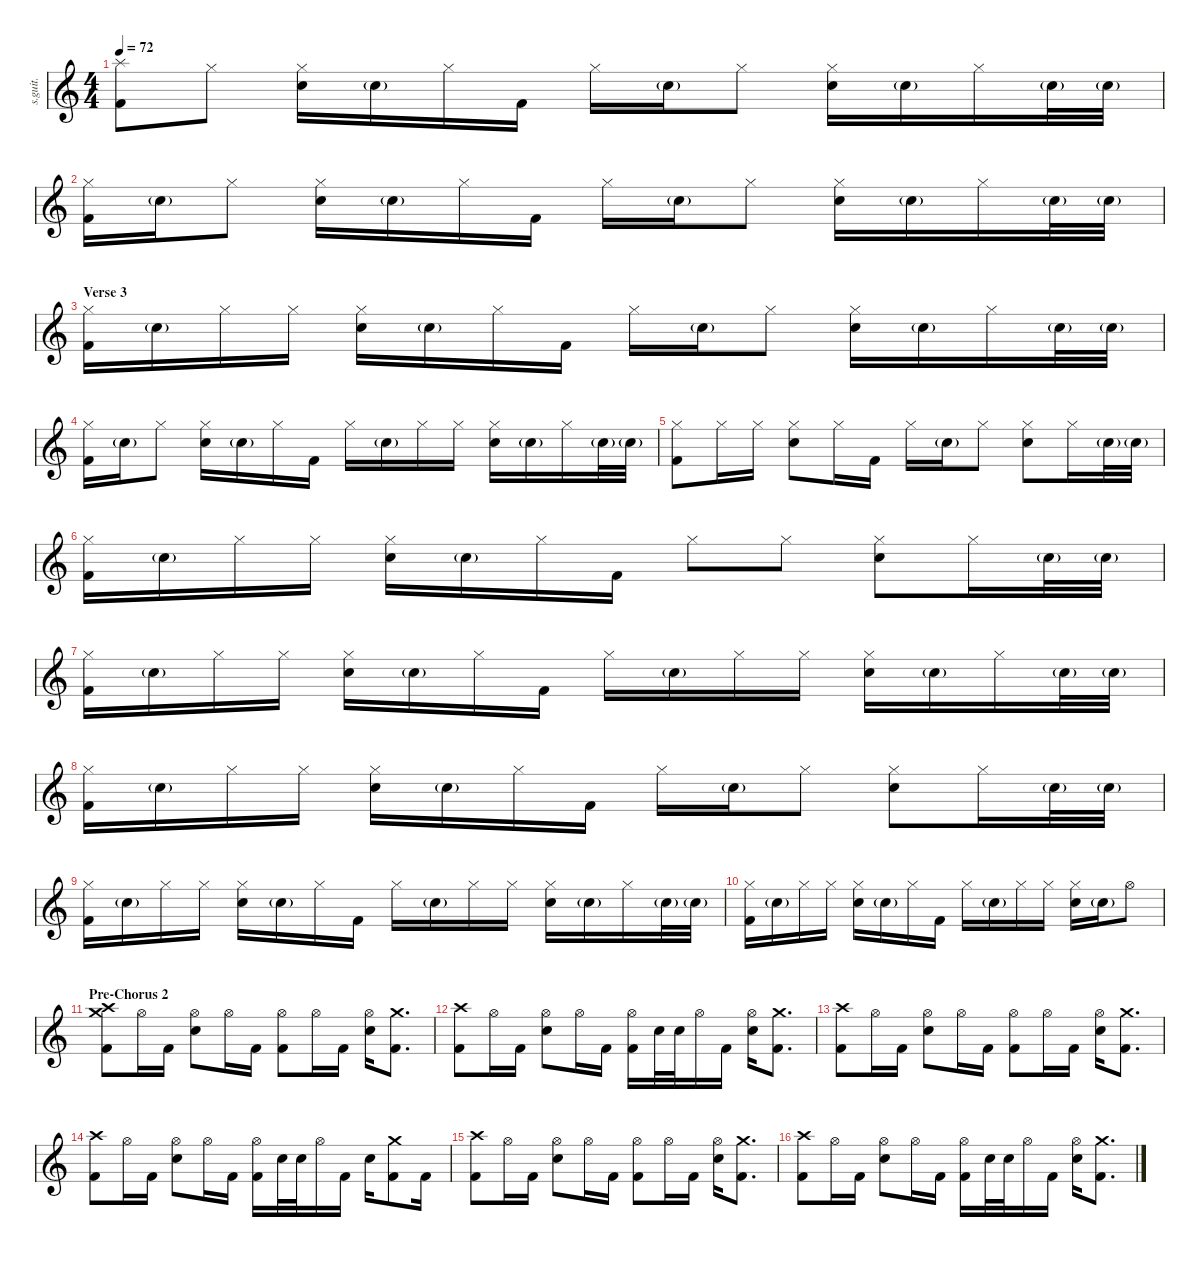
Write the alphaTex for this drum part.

\defaultSystemsLayout 4
\hideDynamics
\bracketExtendMode nobrackets
\track ("Abe Cunningham" "s.guit.") {instrument percussion}
\staff {score}
\articulation defaults
\ts (4 4)
\beaming (8 2 2 2 2)
\tempo 72
\clef g2
\ks c
("Kick (hit) 2" "Splash (hit)").8{lyrics (0 "") lyrics (1 "") lyrics (2 "") lyrics (3 "") lyrics (4 "") dy fff} "Hi-Hat (closed)".8{lyrics (0 "") lyrics (1 "") lyrics (2 "") lyrics (3 "") lyrics (4 "")} ("Hi-Hat (closed)" "Snare (hit) 2").16{lyrics (0 "") lyrics (1 "") lyrics (2 "") lyrics (3 "") lyrics (4 "")} "Snare (hit) 2"{g}.16{lyrics (0 "") lyrics (1 "") lyrics (2 "") lyrics (3 "") lyrics (4 "")} "Hi-Hat (closed)".16{lyrics (0 "") lyrics (1 "") lyrics (2 "") lyrics (3 "") lyrics (4 "")} "Kick (hit) 2".16{lyrics (0 "") lyrics (1 "") lyrics (2 "") lyrics (3 "") lyrics (4 "")} "Hi-Hat (closed)".16{lyrics (0 "") lyrics (1 "") lyrics (2 "") lyrics (3 "") lyrics (4 "")} "Snare (hit) 2"{g}.16{lyrics (0 "") lyrics (1 "") lyrics (2 "") lyrics (3 "") lyrics (4 "")} "Hi-Hat (closed)".8{lyrics (0 "") lyrics (1 "") lyrics (2 "") lyrics (3 "") lyrics (4 "")} ("Hi-Hat (closed)" "Snare (hit) 2").16{lyrics (0 "") lyrics (1 "") lyrics (2 "") lyrics (3 "") lyrics (4 "")} "Snare (hit) 2"{g}.16{lyrics (0 "") lyrics (1 "") lyrics (2 "") lyrics (3 "") lyrics (4 "")} "Hi-Hat (closed)".16{lyrics (0 "") lyrics (1 "") lyrics (2 "") lyrics (3 "") lyrics (4 "")} "Snare (hit) 2"{g}.32{lyrics (0 "") lyrics (1 "") lyrics (2 "") lyrics (3 "") lyrics (4 "")} "Snare (hit) 2"{g}.32{lyrics (0 "") lyrics (1 "") lyrics (2 "") lyrics (3 "") lyrics (4 "")} |
("Kick (hit) 2" "Hi-Hat (closed)").16{lyrics (0 "") lyrics (1 "") lyrics (2 "") lyrics (3 "") lyrics (4 "")} "Snare (hit) 2"{g}.16{lyrics (0 "") lyrics (1 "") lyrics (2 "") lyrics (3 "") lyrics (4 "")} "Hi-Hat (closed)".8{lyrics (0 "") lyrics (1 "") lyrics (2 "") lyrics (3 "") lyrics (4 "")} ("Hi-Hat (closed)" "Snare (hit) 2").16{lyrics (0 "") lyrics (1 "") lyrics (2 "") lyrics (3 "") lyrics (4 "")} "Snare (hit) 2"{g}.16{lyrics (0 "") lyrics (1 "") lyrics (2 "") lyrics (3 "") lyrics (4 "")} "Hi-Hat (closed)".16{lyrics (0 "") lyrics (1 "") lyrics (2 "") lyrics (3 "") lyrics (4 "")} "Kick (hit) 2".16{lyrics (0 "") lyrics (1 "") lyrics (2 "") lyrics (3 "") lyrics (4 "")} "Hi-Hat (closed)".16{lyrics (0 "") lyrics (1 "") lyrics (2 "") lyrics (3 "") lyrics (4 "")} "Snare (hit) 2"{g}.16{lyrics (0 "") lyrics (1 "") lyrics (2 "") lyrics (3 "") lyrics (4 "")} "Hi-Hat (closed)".8{lyrics (0 "") lyrics (1 "") lyrics (2 "") lyrics (3 "") lyrics (4 "")} ("Hi-Hat (closed)" "Snare (hit) 2").16{lyrics (0 "") lyrics (1 "") lyrics (2 "") lyrics (3 "") lyrics (4 "")} "Snare (hit) 2"{g}.16{lyrics (0 "") lyrics (1 "") lyrics (2 "") lyrics (3 "") lyrics (4 "")} "Hi-Hat (closed)".16{lyrics (0 "") lyrics (1 "") lyrics (2 "") lyrics (3 "") lyrics (4 "")} "Snare (hit) 2"{g}.32{lyrics (0 "") lyrics (1 "") lyrics (2 "") lyrics (3 "") lyrics (4 "")} "Snare (hit) 2"{g}.32{lyrics (0 "") lyrics (1 "") lyrics (2 "") lyrics (3 "") lyrics (4 "")} |
\section ("" "Verse 3")
("Kick (hit) 2" "Hi-Hat (closed)").16{lyrics (0 "") lyrics (1 "") lyrics (2 "") lyrics (3 "") lyrics (4 "")} "Snare (hit) 2"{g}.16{lyrics (0 "") lyrics (1 "") lyrics (2 "") lyrics (3 "") lyrics (4 "")} "Hi-Hat (closed)".16{lyrics (0 "") lyrics (1 "") lyrics (2 "") lyrics (3 "") lyrics (4 "")} "Hi-Hat (closed)".16{lyrics (0 "") lyrics (1 "") lyrics (2 "") lyrics (3 "") lyrics (4 "")} ("Hi-Hat (closed)" "Snare (hit) 2").16{lyrics (0 "") lyrics (1 "") lyrics (2 "") lyrics (3 "") lyrics (4 "")} "Snare (hit) 2"{g}.16{lyrics (0 "") lyrics (1 "") lyrics (2 "") lyrics (3 "") lyrics (4 "")} "Hi-Hat (closed)".16{lyrics (0 "") lyrics (1 "") lyrics (2 "") lyrics (3 "") lyrics (4 "")} "Kick (hit) 2".16{lyrics (0 "") lyrics (1 "") lyrics (2 "") lyrics (3 "") lyrics (4 "")} "Hi-Hat (closed)".16{lyrics (0 "") lyrics (1 "") lyrics (2 "") lyrics (3 "") lyrics (4 "")} "Snare (hit) 2"{g}.16{lyrics (0 "") lyrics (1 "") lyrics (2 "") lyrics (3 "") lyrics (4 "")} "Hi-Hat (closed)".8{lyrics (0 "") lyrics (1 "") lyrics (2 "") lyrics (3 "") lyrics (4 "")} ("Hi-Hat (closed)" "Snare (hit) 2").16{lyrics (0 "") lyrics (1 "") lyrics (2 "") lyrics (3 "") lyrics (4 "")} "Snare (hit) 2"{g}.16{lyrics (0 "") lyrics (1 "") lyrics (2 "") lyrics (3 "") lyrics (4 "")} "Hi-Hat (closed)".16{lyrics (0 "") lyrics (1 "") lyrics (2 "") lyrics (3 "") lyrics (4 "")} "Snare (hit) 2"{g}.32{lyrics (0 "") lyrics (1 "") lyrics (2 "") lyrics (3 "") lyrics (4 "")} "Snare (hit) 2"{g}.32{lyrics (0 "") lyrics (1 "") lyrics (2 "") lyrics (3 "") lyrics (4 "")} |
("Kick (hit) 2" "Hi-Hat (closed)").16{lyrics (0 "") lyrics (1 "") lyrics (2 "") lyrics (3 "") lyrics (4 "")} "Snare (hit) 2"{g}.16{lyrics (0 "") lyrics (1 "") lyrics (2 "") lyrics (3 "") lyrics (4 "")} "Hi-Hat (closed)".8{lyrics (0 "") lyrics (1 "") lyrics (2 "") lyrics (3 "") lyrics (4 "")} ("Hi-Hat (closed)" "Snare (hit) 2").16{lyrics (0 "") lyrics (1 "") lyrics (2 "") lyrics (3 "") lyrics (4 "")} "Snare (hit) 2"{g}.16{lyrics (0 "") lyrics (1 "") lyrics (2 "") lyrics (3 "") lyrics (4 "")} "Hi-Hat (closed)".16{lyrics (0 "") lyrics (1 "") lyrics (2 "") lyrics (3 "") lyrics (4 "")} "Kick (hit) 2".16{lyrics (0 "") lyrics (1 "") lyrics (2 "") lyrics (3 "") lyrics (4 "")} "Hi-Hat (closed)".16{lyrics (0 "") lyrics (1 "") lyrics (2 "") lyrics (3 "") lyrics (4 "")} "Snare (hit) 2"{g}.16{lyrics (0 "") lyrics (1 "") lyrics (2 "") lyrics (3 "") lyrics (4 "")} "Hi-Hat (closed)".16{lyrics (0 "") lyrics (1 "") lyrics (2 "") lyrics (3 "") lyrics (4 "")} "Hi-Hat (closed)".16{lyrics (0 "") lyrics (1 "") lyrics (2 "") lyrics (3 "") lyrics (4 "")} ("Hi-Hat (closed)" "Snare (hit) 2").16{lyrics (0 "") lyrics (1 "") lyrics (2 "") lyrics (3 "") lyrics (4 "")} "Snare (hit) 2"{g}.16{lyrics (0 "") lyrics (1 "") lyrics (2 "") lyrics (3 "") lyrics (4 "")} "Hi-Hat (closed)".16{lyrics (0 "") lyrics (1 "") lyrics (2 "") lyrics (3 "") lyrics (4 "")} "Snare (hit) 2"{g}.32{lyrics (0 "") lyrics (1 "") lyrics (2 "") lyrics (3 "") lyrics (4 "")} "Snare (hit) 2"{g}.32{lyrics (0 "") lyrics (1 "") lyrics (2 "") lyrics (3 "") lyrics (4 "")} |
("Kick (hit) 2" "Hi-Hat (closed)").8{lyrics (0 "") lyrics (1 "") lyrics (2 "") lyrics (3 "") lyrics (4 "")} "Hi-Hat (closed)".16{lyrics (0 "") lyrics (1 "") lyrics (2 "") lyrics (3 "") lyrics (4 "")} "Hi-Hat (closed)".16{lyrics (0 "") lyrics (1 "") lyrics (2 "") lyrics (3 "") lyrics (4 "")} ("Hi-Hat (closed)" "Snare (hit) 2").8{lyrics (0 "") lyrics (1 "") lyrics (2 "") lyrics (3 "") lyrics (4 "")} "Hi-Hat (closed)".16{lyrics (0 "") lyrics (1 "") lyrics (2 "") lyrics (3 "") lyrics (4 "")} "Kick (hit) 2".16{lyrics (0 "") lyrics (1 "") lyrics (2 "") lyrics (3 "") lyrics (4 "")} "Hi-Hat (closed)".16{lyrics (0 "") lyrics (1 "") lyrics (2 "") lyrics (3 "") lyrics (4 "")} "Snare (hit) 2"{g}.16{lyrics (0 "") lyrics (1 "") lyrics (2 "") lyrics (3 "") lyrics (4 "")} "Hi-Hat (closed)".8{lyrics (0 "") lyrics (1 "") lyrics (2 "") lyrics (3 "") lyrics (4 "")} ("Hi-Hat (closed)" "Snare (hit) 2").8{lyrics (0 "") lyrics (1 "") lyrics (2 "") lyrics (3 "") lyrics (4 "")} "Hi-Hat (closed)".16{lyrics (0 "") lyrics (1 "") lyrics (2 "") lyrics (3 "") lyrics (4 "")} "Snare (hit) 2"{g}.32{lyrics (0 "") lyrics (1 "") lyrics (2 "") lyrics (3 "") lyrics (4 "")} "Snare (hit) 2"{g}.32{lyrics (0 "") lyrics (1 "") lyrics (2 "") lyrics (3 "") lyrics (4 "")} |
("Kick (hit) 2" "Hi-Hat (closed)").16{lyrics (0 "") lyrics (1 "") lyrics (2 "") lyrics (3 "") lyrics (4 "")} "Snare (hit) 2"{g}.16{lyrics (0 "") lyrics (1 "") lyrics (2 "") lyrics (3 "") lyrics (4 "")} "Hi-Hat (closed)".16{lyrics (0 "") lyrics (1 "") lyrics (2 "") lyrics (3 "") lyrics (4 "")} "Hi-Hat (closed)".16{lyrics (0 "") lyrics (1 "") lyrics (2 "") lyrics (3 "") lyrics (4 "")} ("Hi-Hat (closed)" "Snare (hit) 2").16{lyrics (0 "") lyrics (1 "") lyrics (2 "") lyrics (3 "") lyrics (4 "")} "Snare (hit) 2"{g}.16{lyrics (0 "") lyrics (1 "") lyrics (2 "") lyrics (3 "") lyrics (4 "")} "Hi-Hat (closed)".16{lyrics (0 "") lyrics (1 "") lyrics (2 "") lyrics (3 "") lyrics (4 "")} "Kick (hit) 2".16{lyrics (0 "") lyrics (1 "") lyrics (2 "") lyrics (3 "") lyrics (4 "")} "Hi-Hat (closed)".8{lyrics (0 "") lyrics (1 "") lyrics (2 "") lyrics (3 "") lyrics (4 "")} "Hi-Hat (closed)".8{lyrics (0 "") lyrics (1 "") lyrics (2 "") lyrics (3 "") lyrics (4 "")} ("Hi-Hat (closed)" "Snare (hit) 2").8{lyrics (0 "") lyrics (1 "") lyrics (2 "") lyrics (3 "") lyrics (4 "")} "Hi-Hat (closed)".16{lyrics (0 "") lyrics (1 "") lyrics (2 "") lyrics (3 "") lyrics (4 "")} "Snare (hit) 2"{g}.32{lyrics (0 "") lyrics (1 "") lyrics (2 "") lyrics (3 "") lyrics (4 "")} "Snare (hit) 2"{g}.32{lyrics (0 "") lyrics (1 "") lyrics (2 "") lyrics (3 "") lyrics (4 "")} |
("Kick (hit) 2" "Hi-Hat (closed)").16{lyrics (0 "") lyrics (1 "") lyrics (2 "") lyrics (3 "") lyrics (4 "")} "Snare (hit) 2"{g}.16{lyrics (0 "") lyrics (1 "") lyrics (2 "") lyrics (3 "") lyrics (4 "")} "Hi-Hat (closed)".16{lyrics (0 "") lyrics (1 "") lyrics (2 "") lyrics (3 "") lyrics (4 "")} "Hi-Hat (closed)".16{lyrics (0 "") lyrics (1 "") lyrics (2 "") lyrics (3 "") lyrics (4 "")} ("Hi-Hat (closed)" "Snare (hit) 2").16{lyrics (0 "") lyrics (1 "") lyrics (2 "") lyrics (3 "") lyrics (4 "")} "Snare (hit) 2"{g}.16{lyrics (0 "") lyrics (1 "") lyrics (2 "") lyrics (3 "") lyrics (4 "")} "Hi-Hat (closed)".16{lyrics (0 "") lyrics (1 "") lyrics (2 "") lyrics (3 "") lyrics (4 "")} "Kick (hit) 2".16{lyrics (0 "") lyrics (1 "") lyrics (2 "") lyrics (3 "") lyrics (4 "")} "Hi-Hat (closed)".16{lyrics (0 "") lyrics (1 "") lyrics (2 "") lyrics (3 "") lyrics (4 "")} "Snare (hit) 2"{g}.16{lyrics (0 "") lyrics (1 "") lyrics (2 "") lyrics (3 "") lyrics (4 "")} "Hi-Hat (closed)".16{lyrics (0 "") lyrics (1 "") lyrics (2 "") lyrics (3 "") lyrics (4 "")} "Hi-Hat (closed)".16{lyrics (0 "") lyrics (1 "") lyrics (2 "") lyrics (3 "") lyrics (4 "")} ("Hi-Hat (closed)" "Snare (hit) 2").16{lyrics (0 "") lyrics (1 "") lyrics (2 "") lyrics (3 "") lyrics (4 "")} "Snare (hit) 2"{g}.16{lyrics (0 "") lyrics (1 "") lyrics (2 "") lyrics (3 "") lyrics (4 "")} "Hi-Hat (closed)".16{lyrics (0 "") lyrics (1 "") lyrics (2 "") lyrics (3 "") lyrics (4 "")} "Snare (hit) 2"{g}.32{lyrics (0 "") lyrics (1 "") lyrics (2 "") lyrics (3 "") lyrics (4 "")} "Snare (hit) 2"{g}.32{lyrics (0 "") lyrics (1 "") lyrics (2 "") lyrics (3 "") lyrics (4 "")} |
("Kick (hit) 2" "Hi-Hat (closed)").16{lyrics (0 "") lyrics (1 "") lyrics (2 "") lyrics (3 "") lyrics (4 "")} "Snare (hit) 2"{g}.16{lyrics (0 "") lyrics (1 "") lyrics (2 "") lyrics (3 "") lyrics (4 "")} "Hi-Hat (closed)".16{lyrics (0 "") lyrics (1 "") lyrics (2 "") lyrics (3 "") lyrics (4 "")} "Hi-Hat (closed)".16{lyrics (0 "") lyrics (1 "") lyrics (2 "") lyrics (3 "") lyrics (4 "")} ("Hi-Hat (closed)" "Snare (hit) 2").16{lyrics (0 "") lyrics (1 "") lyrics (2 "") lyrics (3 "") lyrics (4 "")} "Snare (hit) 2"{g}.16{lyrics (0 "") lyrics (1 "") lyrics (2 "") lyrics (3 "") lyrics (4 "")} "Hi-Hat (closed)".16{lyrics (0 "") lyrics (1 "") lyrics (2 "") lyrics (3 "") lyrics (4 "")} "Kick (hit) 2".16{lyrics (0 "") lyrics (1 "") lyrics (2 "") lyrics (3 "") lyrics (4 "")} "Hi-Hat (closed)".16{lyrics (0 "") lyrics (1 "") lyrics (2 "") lyrics (3 "") lyrics (4 "")} "Snare (hit) 2"{g}.16{lyrics (0 "") lyrics (1 "") lyrics (2 "") lyrics (3 "") lyrics (4 "")} "Hi-Hat (closed)".8{lyrics (0 "") lyrics (1 "") lyrics (2 "") lyrics (3 "") lyrics (4 "")} ("Hi-Hat (closed)" "Snare (hit) 2").8{lyrics (0 "") lyrics (1 "") lyrics (2 "") lyrics (3 "") lyrics (4 "")} "Hi-Hat (closed)".16{lyrics (0 "") lyrics (1 "") lyrics (2 "") lyrics (3 "") lyrics (4 "")} "Snare (hit) 2"{g}.32{lyrics (0 "") lyrics (1 "") lyrics (2 "") lyrics (3 "") lyrics (4 "")} "Snare (hit) 2"{g}.32{lyrics (0 "") lyrics (1 "") lyrics (2 "") lyrics (3 "") lyrics (4 "")} |
("Kick (hit) 2" "Hi-Hat (closed)").16{lyrics (0 "") lyrics (1 "") lyrics (2 "") lyrics (3 "") lyrics (4 "")} "Snare (hit) 2"{g}.16{lyrics (0 "") lyrics (1 "") lyrics (2 "") lyrics (3 "") lyrics (4 "")} "Hi-Hat (closed)".16{lyrics (0 "") lyrics (1 "") lyrics (2 "") lyrics (3 "") lyrics (4 "")} "Hi-Hat (closed)".16{lyrics (0 "") lyrics (1 "") lyrics (2 "") lyrics (3 "") lyrics (4 "")} ("Hi-Hat (closed)" "Snare (hit) 2").16{lyrics (0 "") lyrics (1 "") lyrics (2 "") lyrics (3 "") lyrics (4 "")} "Snare (hit) 2"{g}.16{lyrics (0 "") lyrics (1 "") lyrics (2 "") lyrics (3 "") lyrics (4 "")} "Hi-Hat (closed)".16{lyrics (0 "") lyrics (1 "") lyrics (2 "") lyrics (3 "") lyrics (4 "")} "Kick (hit) 2".16{lyrics (0 "") lyrics (1 "") lyrics (2 "") lyrics (3 "") lyrics (4 "")} "Hi-Hat (closed)".16{lyrics (0 "") lyrics (1 "") lyrics (2 "") lyrics (3 "") lyrics (4 "")} "Snare (hit) 2"{g}.16{lyrics (0 "") lyrics (1 "") lyrics (2 "") lyrics (3 "") lyrics (4 "")} "Hi-Hat (closed)".16{lyrics (0 "") lyrics (1 "") lyrics (2 "") lyrics (3 "") lyrics (4 "")} "Hi-Hat (closed)".16{lyrics (0 "") lyrics (1 "") lyrics (2 "") lyrics (3 "") lyrics (4 "")} ("Hi-Hat (closed)" "Snare (hit) 2").16{lyrics (0 "") lyrics (1 "") lyrics (2 "") lyrics (3 "") lyrics (4 "")} "Snare (hit) 2"{g}.16{lyrics (0 "") lyrics (1 "") lyrics (2 "") lyrics (3 "") lyrics (4 "")} "Hi-Hat (closed)".16{lyrics (0 "") lyrics (1 "") lyrics (2 "") lyrics (3 "") lyrics (4 "")} "Snare (hit) 2"{g}.32{lyrics (0 "") lyrics (1 "") lyrics (2 "") lyrics (3 "") lyrics (4 "")} "Snare (hit) 2"{g}.32{lyrics (0 "") lyrics (1 "") lyrics (2 "") lyrics (3 "") lyrics (4 "")} |
("Kick (hit) 2" "Hi-Hat (closed)").16{lyrics (0 "") lyrics (1 "") lyrics (2 "") lyrics (3 "") lyrics (4 "")} "Snare (hit) 2"{g}.16{lyrics (0 "") lyrics (1 "") lyrics (2 "") lyrics (3 "") lyrics (4 "")} "Hi-Hat (closed)".16{lyrics (0 "") lyrics (1 "") lyrics (2 "") lyrics (3 "") lyrics (4 "")} "Hi-Hat (closed)".16{lyrics (0 "") lyrics (1 "") lyrics (2 "") lyrics (3 "") lyrics (4 "")} ("Hi-Hat (closed)" "Snare (hit) 2").16{lyrics (0 "") lyrics (1 "") lyrics (2 "") lyrics (3 "") lyrics (4 "")} "Snare (hit) 2"{g}.16{lyrics (0 "") lyrics (1 "") lyrics (2 "") lyrics (3 "") lyrics (4 "")} "Hi-Hat (closed)".16{lyrics (0 "") lyrics (1 "") lyrics (2 "") lyrics (3 "") lyrics (4 "")} "Kick (hit) 2".16{lyrics (0 "") lyrics (1 "") lyrics (2 "") lyrics (3 "") lyrics (4 "")} "Hi-Hat (closed)".16{lyrics (0 "") lyrics (1 "") lyrics (2 "") lyrics (3 "") lyrics (4 "")} "Snare (hit) 2"{g}.16{lyrics (0 "") lyrics (1 "") lyrics (2 "") lyrics (3 "") lyrics (4 "")} "Hi-Hat (closed)".16{lyrics (0 "") lyrics (1 "") lyrics (2 "") lyrics (3 "") lyrics (4 "")} "Hi-Hat (closed)".16{lyrics (0 "") lyrics (1 "") lyrics (2 "") lyrics (3 "") lyrics (4 "")} ("Hi-Hat (closed)" "Snare (hit) 2").16{lyrics (0 "") lyrics (1 "") lyrics (2 "") lyrics (3 "") lyrics (4 "")} "Snare (hit) 2"{g}.16{lyrics (0 "") lyrics (1 "") lyrics (2 "") lyrics (3 "") lyrics (4 "")} "Hi-Hat (open)".8{lyrics (0 "") lyrics (1 "") lyrics (2 "") lyrics (3 "") lyrics (4 "")} |
\section ("" "Pre-Chorus 2")
("Crash high (hit)" "Kick (hit) 2" "Crash medium (hit)").8{lyrics (0 "") lyrics (1 "") lyrics (2 "") lyrics (3 "") lyrics (4 "")} "Hi-Hat (open)".16{lyrics (0 "") lyrics (1 "") lyrics (2 "") lyrics (3 "") lyrics (4 "")} "Kick (hit) 2".16{lyrics (0 "") lyrics (1 "") lyrics (2 "") lyrics (3 "") lyrics (4 "")} ("Hi-Hat (open)" "Snare (hit) 2").8{lyrics (0 "") lyrics (1 "") lyrics (2 "") lyrics (3 "") lyrics (4 "")} "Hi-Hat (open)".16{lyrics (0 "") lyrics (1 "") lyrics (2 "") lyrics (3 "") lyrics (4 "")} "Kick (hit) 2".16{lyrics (0 "") lyrics (1 "") lyrics (2 "") lyrics (3 "") lyrics (4 "")} ("Hi-Hat (open)" "Kick (hit) 2").8{lyrics (0 "") lyrics (1 "") lyrics (2 "") lyrics (3 "") lyrics (4 "")} "Hi-Hat (open)".16{lyrics (0 "") lyrics (1 "") lyrics (2 "") lyrics (3 "") lyrics (4 "")} "Kick (hit) 2".16{lyrics (0 "") lyrics (1 "") lyrics (2 "") lyrics (3 "") lyrics (4 "")} ("Hi-Hat (open)" "Snare (hit) 2").16{lyrics (0 "") lyrics (1 "") lyrics (2 "") lyrics (3 "") lyrics (4 "")} ("Kick (hit) 2" "Crash medium (hit)").8{d lyrics (0 "") lyrics (1 "") lyrics (2 "") lyrics (3 "") lyrics (4 "")} |
("Kick (hit) 2" "Crash high (hit)").8{lyrics (0 "") lyrics (1 "") lyrics (2 "") lyrics (3 "") lyrics (4 "")} "Hi-Hat (open)".16{lyrics (0 "") lyrics (1 "") lyrics (2 "") lyrics (3 "") lyrics (4 "")} "Kick (hit) 2".16{lyrics (0 "") lyrics (1 "") lyrics (2 "") lyrics (3 "") lyrics (4 "")} ("Hi-Hat (open)" "Snare (hit) 2").8{lyrics (0 "") lyrics (1 "") lyrics (2 "") lyrics (3 "") lyrics (4 "")} "Hi-Hat (open)".16{lyrics (0 "") lyrics (1 "") lyrics (2 "") lyrics (3 "") lyrics (4 "")} "Kick (hit) 2".16{lyrics (0 "") lyrics (1 "") lyrics (2 "") lyrics (3 "") lyrics (4 "")} ("Hi-Hat (open)" "Kick (hit) 2").16{lyrics (0 "") lyrics (1 "") lyrics (2 "") lyrics (3 "") lyrics (4 "")} "Snare (hit) 2".32{lyrics (0 "") lyrics (1 "") lyrics (2 "") lyrics (3 "") lyrics (4 "")} "Snare (hit) 2".32{lyrics (0 "") lyrics (1 "") lyrics (2 "") lyrics (3 "") lyrics (4 "")} "Hi-Hat (open)".16{lyrics (0 "") lyrics (1 "") lyrics (2 "") lyrics (3 "") lyrics (4 "")} "Kick (hit) 2".16{lyrics (0 "") lyrics (1 "") lyrics (2 "") lyrics (3 "") lyrics (4 "")} ("Hi-Hat (open)" "Snare (hit) 2").16{lyrics (0 "") lyrics (1 "") lyrics (2 "") lyrics (3 "") lyrics (4 "")} ("Kick (hit) 2" "Crash medium (hit)").8{d lyrics (0 "") lyrics (1 "") lyrics (2 "") lyrics (3 "") lyrics (4 "")} |
("Kick (hit) 2" "Crash high (hit)").8{lyrics (0 "") lyrics (1 "") lyrics (2 "") lyrics (3 "") lyrics (4 "")} "Hi-Hat (open)".16{lyrics (0 "") lyrics (1 "") lyrics (2 "") lyrics (3 "") lyrics (4 "")} "Kick (hit) 2".16{lyrics (0 "") lyrics (1 "") lyrics (2 "") lyrics (3 "") lyrics (4 "")} ("Hi-Hat (open)" "Snare (hit) 2").8{lyrics (0 "") lyrics (1 "") lyrics (2 "") lyrics (3 "") lyrics (4 "")} "Hi-Hat (open)".16{lyrics (0 "") lyrics (1 "") lyrics (2 "") lyrics (3 "") lyrics (4 "")} "Kick (hit) 2".16{lyrics (0 "") lyrics (1 "") lyrics (2 "") lyrics (3 "") lyrics (4 "")} ("Hi-Hat (open)" "Kick (hit) 2").8{lyrics (0 "") lyrics (1 "") lyrics (2 "") lyrics (3 "") lyrics (4 "")} "Hi-Hat (open)".16{lyrics (0 "") lyrics (1 "") lyrics (2 "") lyrics (3 "") lyrics (4 "")} "Kick (hit) 2".16{lyrics (0 "") lyrics (1 "") lyrics (2 "") lyrics (3 "") lyrics (4 "")} ("Hi-Hat (open)" "Snare (hit) 2").16{lyrics (0 "") lyrics (1 "") lyrics (2 "") lyrics (3 "") lyrics (4 "")} ("Kick (hit) 2" "Crash medium (hit)").8{d lyrics (0 "") lyrics (1 "") lyrics (2 "") lyrics (3 "") lyrics (4 "")} |
("Kick (hit) 2" "Crash high (hit)").8{lyrics (0 "") lyrics (1 "") lyrics (2 "") lyrics (3 "") lyrics (4 "")} "Hi-Hat (open)".16{lyrics (0 "") lyrics (1 "") lyrics (2 "") lyrics (3 "") lyrics (4 "")} "Kick (hit) 2".16{lyrics (0 "") lyrics (1 "") lyrics (2 "") lyrics (3 "") lyrics (4 "")} ("Hi-Hat (open)" "Snare (hit) 2").8{lyrics (0 "") lyrics (1 "") lyrics (2 "") lyrics (3 "") lyrics (4 "")} "Hi-Hat (open)".16{lyrics (0 "") lyrics (1 "") lyrics (2 "") lyrics (3 "") lyrics (4 "")} "Kick (hit) 2".16{lyrics (0 "") lyrics (1 "") lyrics (2 "") lyrics (3 "") lyrics (4 "")} ("Hi-Hat (open)" "Kick (hit) 2").16{lyrics (0 "") lyrics (1 "") lyrics (2 "") lyrics (3 "") lyrics (4 "")} "Snare (hit) 2".32{lyrics (0 "") lyrics (1 "") lyrics (2 "") lyrics (3 "") lyrics (4 "")} "Snare (hit) 2".32{lyrics (0 "") lyrics (1 "") lyrics (2 "") lyrics (3 "") lyrics (4 "")} "Hi-Hat (open)".16{lyrics (0 "") lyrics (1 "") lyrics (2 "") lyrics (3 "") lyrics (4 "")} "Kick (hit) 2".16{lyrics (0 "") lyrics (1 "") lyrics (2 "") lyrics (3 "") lyrics (4 "")} "Snare (hit) 2".16{lyrics (0 "") lyrics (1 "") lyrics (2 "") lyrics (3 "") lyrics (4 "")} ("Kick (hit) 2" "Crash medium (hit)").8{lyrics (0 "") lyrics (1 "") lyrics (2 "") lyrics (3 "") lyrics (4 "")} "Kick (hit) 2".16{lyrics (0 "") lyrics (1 "") lyrics (2 "") lyrics (3 "") lyrics (4 "")} |
("Kick (hit) 2" "Crash high (hit)").8{lyrics (0 "") lyrics (1 "") lyrics (2 "") lyrics (3 "") lyrics (4 "")} "Hi-Hat (open)".16{lyrics (0 "") lyrics (1 "") lyrics (2 "") lyrics (3 "") lyrics (4 "")} "Kick (hit) 2".16{lyrics (0 "") lyrics (1 "") lyrics (2 "") lyrics (3 "") lyrics (4 "")} ("Hi-Hat (open)" "Snare (hit) 2").8{lyrics (0 "") lyrics (1 "") lyrics (2 "") lyrics (3 "") lyrics (4 "")} "Hi-Hat (open)".16{lyrics (0 "") lyrics (1 "") lyrics (2 "") lyrics (3 "") lyrics (4 "")} "Kick (hit) 2".16{lyrics (0 "") lyrics (1 "") lyrics (2 "") lyrics (3 "") lyrics (4 "")} ("Hi-Hat (open)" "Kick (hit) 2").8{lyrics (0 "") lyrics (1 "") lyrics (2 "") lyrics (3 "") lyrics (4 "")} "Hi-Hat (open)".16{lyrics (0 "") lyrics (1 "") lyrics (2 "") lyrics (3 "") lyrics (4 "")} "Kick (hit) 2".16{lyrics (0 "") lyrics (1 "") lyrics (2 "") lyrics (3 "") lyrics (4 "")} ("Hi-Hat (open)" "Snare (hit) 2").16{lyrics (0 "") lyrics (1 "") lyrics (2 "") lyrics (3 "") lyrics (4 "")} ("Kick (hit) 2" "Crash medium (hit)").8{d lyrics (0 "") lyrics (1 "") lyrics (2 "") lyrics (3 "") lyrics (4 "")} |
("Kick (hit) 2" "Crash high (hit)").8{lyrics (0 "") lyrics (1 "") lyrics (2 "") lyrics (3 "") lyrics (4 "")} "Hi-Hat (open)".16{lyrics (0 "") lyrics (1 "") lyrics (2 "") lyrics (3 "") lyrics (4 "")} "Kick (hit) 2".16{lyrics (0 "") lyrics (1 "") lyrics (2 "") lyrics (3 "") lyrics (4 "")} ("Hi-Hat (open)" "Snare (hit) 2").8{lyrics (0 "") lyrics (1 "") lyrics (2 "") lyrics (3 "") lyrics (4 "")} "Hi-Hat (open)".16{lyrics (0 "") lyrics (1 "") lyrics (2 "") lyrics (3 "") lyrics (4 "")} "Kick (hit) 2".16{lyrics (0 "") lyrics (1 "") lyrics (2 "") lyrics (3 "") lyrics (4 "")} ("Hi-Hat (open)" "Kick (hit) 2").16{lyrics (0 "") lyrics (1 "") lyrics (2 "") lyrics (3 "") lyrics (4 "")} "Snare (hit) 2".32{lyrics (0 "") lyrics (1 "") lyrics (2 "") lyrics (3 "") lyrics (4 "")} "Snare (hit) 2".32{lyrics (0 "") lyrics (1 "") lyrics (2 "") lyrics (3 "") lyrics (4 "")} "Hi-Hat (open)".16{lyrics (0 "") lyrics (1 "") lyrics (2 "") lyrics (3 "") lyrics (4 "")} "Kick (hit) 2".16{lyrics (0 "") lyrics (1 "") lyrics (2 "") lyrics (3 "") lyrics (4 "")} ("Hi-Hat (open)" "Snare (hit) 2").16{lyrics (0 "") lyrics (1 "") lyrics (2 "") lyrics (3 "") lyrics (4 "")} ("Kick (hit) 2" "Crash medium (hit)").8{d lyrics (0 "") lyrics (1 "") lyrics (2 "") lyrics (3 "") lyrics (4 "")}
